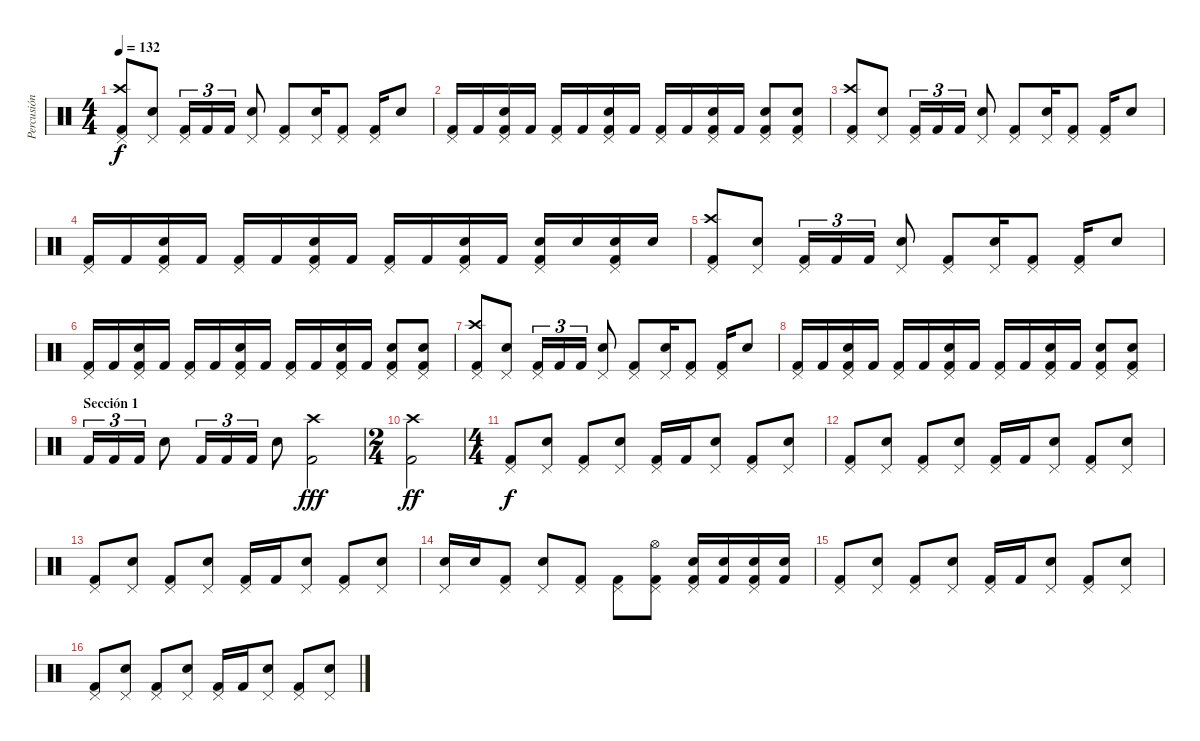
\track ("Percusión" "Percusión") {instrument percussion}
\staff {score}
\articulation defaults
\ts (4 4)
\tempo 132
\clef neutral
\ks c
("Pedal Hi-Hat (hit)" "Crash high (hit)" "Kick (hit) 2").8{dy f} ("Pedal Hi-Hat (hit)" "Electric Snare (hit)").8 ("Pedal Hi-Hat (hit)" "Kick (hit) 2").16{tu (3 2)} "Kick (hit) 2".16{tu (3 2)} "Kick (hit) 2".16{tu (3 2)} ("Pedal Hi-Hat (hit)" "Electric Snare (hit)").8 ("Pedal Hi-Hat (hit)" "Kick (hit) 2").8 ("Pedal Hi-Hat (hit)" "Electric Snare (hit)").16 ("Pedal Hi-Hat (hit)" "Kick (hit) 2").8 ("Pedal Hi-Hat (hit)" "Kick (hit) 2").16 "Electric Snare (hit)".8 |
("Pedal Hi-Hat (hit)" "Kick (hit) 2").16 "Kick (hit) 2".16 ("Pedal Hi-Hat (hit)" "Electric Snare (hit)" "Kick (hit) 2").16 "Kick (hit) 2".16 ("Pedal Hi-Hat (hit)" "Kick (hit) 2").16 "Kick (hit) 2".16 ("Pedal Hi-Hat (hit)" "Electric Snare (hit)" "Kick (hit) 2").16 "Kick (hit) 2".16 ("Pedal Hi-Hat (hit)" "Kick (hit) 2").16 "Kick (hit) 2".16 ("Pedal Hi-Hat (hit)" "Electric Snare (hit)" "Kick (hit) 2").16 "Kick (hit) 2".16 ("Pedal Hi-Hat (hit)" "Electric Snare (hit)" "Kick (hit) 2").8 ("Pedal Hi-Hat (hit)" "Electric Snare (hit)" "Kick (hit) 2").8 |
("Pedal Hi-Hat (hit)" "Crash high (hit)" "Kick (hit) 2").8 ("Pedal Hi-Hat (hit)" "Electric Snare (hit)").8 ("Pedal Hi-Hat (hit)" "Kick (hit) 2").16{tu (3 2)} "Kick (hit) 2".16{tu (3 2)} "Kick (hit) 2".16{tu (3 2)} ("Pedal Hi-Hat (hit)" "Electric Snare (hit)").8 ("Pedal Hi-Hat (hit)" "Kick (hit) 2").8 ("Pedal Hi-Hat (hit)" "Electric Snare (hit)").16 ("Pedal Hi-Hat (hit)" "Kick (hit) 2").8 ("Pedal Hi-Hat (hit)" "Kick (hit) 2").16 "Electric Snare (hit)".8 |
("Pedal Hi-Hat (hit)" "Kick (hit) 2").16 "Kick (hit) 2".16 ("Pedal Hi-Hat (hit)" "Electric Snare (hit)" "Kick (hit) 2").16 "Kick (hit) 2".16 ("Pedal Hi-Hat (hit)" "Kick (hit) 2").16 "Kick (hit) 2".16 ("Pedal Hi-Hat (hit)" "Electric Snare (hit)" "Kick (hit) 2").16 "Kick (hit) 2".16 ("Pedal Hi-Hat (hit)" "Kick (hit) 2").16 "Kick (hit) 2".16 ("Pedal Hi-Hat (hit)" "Electric Snare (hit)" "Kick (hit) 2").16 "Kick (hit) 2".16 ("Pedal Hi-Hat (hit)" "Electric Snare (hit)" "Kick (hit) 2").16 "Electric Snare (hit)".16 ("Pedal Hi-Hat (hit)" "Electric Snare (hit)" "Kick (hit) 2").16 "Electric Snare (hit)".16 |
("Pedal Hi-Hat (hit)" "Crash high (hit)" "Kick (hit) 2").8 ("Pedal Hi-Hat (hit)" "Electric Snare (hit)").8 ("Pedal Hi-Hat (hit)" "Kick (hit) 2").16{tu (3 2)} "Kick (hit) 2".16{tu (3 2)} "Kick (hit) 2".16{tu (3 2)} ("Pedal Hi-Hat (hit)" "Electric Snare (hit)").8 ("Pedal Hi-Hat (hit)" "Kick (hit) 2").8 ("Pedal Hi-Hat (hit)" "Electric Snare (hit)").16 ("Pedal Hi-Hat (hit)" "Kick (hit) 2").8 ("Pedal Hi-Hat (hit)" "Kick (hit) 2").16 "Electric Snare (hit)".8 |
("Pedal Hi-Hat (hit)" "Kick (hit) 2").16 "Kick (hit) 2".16 ("Pedal Hi-Hat (hit)" "Electric Snare (hit)" "Kick (hit) 2").16 "Kick (hit) 2".16 ("Pedal Hi-Hat (hit)" "Kick (hit) 2").16 "Kick (hit) 2".16 ("Pedal Hi-Hat (hit)" "Electric Snare (hit)" "Kick (hit) 2").16 "Kick (hit) 2".16 ("Pedal Hi-Hat (hit)" "Kick (hit) 2").16 "Kick (hit) 2".16 ("Pedal Hi-Hat (hit)" "Electric Snare (hit)" "Kick (hit) 2").16 "Kick (hit) 2".16 ("Pedal Hi-Hat (hit)" "Electric Snare (hit)" "Kick (hit) 2").8 ("Pedal Hi-Hat (hit)" "Electric Snare (hit)" "Kick (hit) 2").8 |
("Pedal Hi-Hat (hit)" "Crash high (hit)" "Kick (hit) 2").8 ("Pedal Hi-Hat (hit)" "Electric Snare (hit)").8 ("Pedal Hi-Hat (hit)" "Kick (hit) 2").16{tu (3 2)} "Kick (hit) 2".16{tu (3 2)} "Kick (hit) 2".16{tu (3 2)} ("Pedal Hi-Hat (hit)" "Electric Snare (hit)").8 ("Pedal Hi-Hat (hit)" "Kick (hit) 2").8 ("Pedal Hi-Hat (hit)" "Electric Snare (hit)").16 ("Pedal Hi-Hat (hit)" "Kick (hit) 2").8 ("Pedal Hi-Hat (hit)" "Kick (hit) 2").16 "Electric Snare (hit)".8 |
("Pedal Hi-Hat (hit)" "Kick (hit) 2").16 "Kick (hit) 2".16 ("Pedal Hi-Hat (hit)" "Electric Snare (hit)" "Kick (hit) 2").16 "Kick (hit) 2".16 ("Pedal Hi-Hat (hit)" "Kick (hit) 2").16 "Kick (hit) 2".16 ("Pedal Hi-Hat (hit)" "Electric Snare (hit)" "Kick (hit) 2").16 "Kick (hit) 2".16 ("Pedal Hi-Hat (hit)" "Kick (hit) 2").16 "Kick (hit) 2".16 ("Pedal Hi-Hat (hit)" "Electric Snare (hit)" "Kick (hit) 2").16 "Kick (hit) 2".16 ("Pedal Hi-Hat (hit)" "Electric Snare (hit)" "Kick (hit) 2").8 ("Pedal Hi-Hat (hit)" "Electric Snare (hit)" "Kick (hit) 2").8 |
\section ("" "Sección 1")
"Kick (hit) 2".16{tu (3 2)} "Kick (hit) 2".16{tu (3 2)} "Kick (hit) 2".16{tu (3 2)} "Electric Snare (hit)".8 "Kick (hit) 2".16{tu (3 2)} "Kick (hit) 2".16{tu (3 2)} "Kick (hit) 2".16{tu (3 2)} "Electric Snare (hit)".8 ("Crash high (hit)" "Kick (hit) 2").2{dy fff} |
\ts (2 4)
("Crash high (hit)" "Kick (hit) 2").2{dy ff} |
\ts (4 4)
("Pedal Hi-Hat (hit)" "Kick (hit) 2").8{dy f} ("Pedal Hi-Hat (hit)" "Electric Snare (hit)").8 ("Pedal Hi-Hat (hit)" "Kick (hit) 2").8 ("Pedal Hi-Hat (hit)" "Electric Snare (hit)").8 ("Pedal Hi-Hat (hit)" "Kick (hit) 2").16 "Kick (hit) 2".16 ("Pedal Hi-Hat (hit)" "Electric Snare (hit)").8 ("Pedal Hi-Hat (hit)" "Kick (hit) 2").8 ("Pedal Hi-Hat (hit)" "Electric Snare (hit)").8 |
("Pedal Hi-Hat (hit)" "Kick (hit) 2").8 ("Pedal Hi-Hat (hit)" "Electric Snare (hit)").8 ("Pedal Hi-Hat (hit)" "Kick (hit) 2").8 ("Pedal Hi-Hat (hit)" "Electric Snare (hit)").8 ("Pedal Hi-Hat (hit)" "Kick (hit) 2").16 "Kick (hit) 2".16 ("Pedal Hi-Hat (hit)" "Electric Snare (hit)").8 ("Pedal Hi-Hat (hit)" "Kick (hit) 2").8 ("Pedal Hi-Hat (hit)" "Electric Snare (hit)").8 |
("Pedal Hi-Hat (hit)" "Kick (hit) 2").8 ("Pedal Hi-Hat (hit)" "Electric Snare (hit)").8 ("Pedal Hi-Hat (hit)" "Kick (hit) 2").8 ("Pedal Hi-Hat (hit)" "Electric Snare (hit)").8 ("Pedal Hi-Hat (hit)" "Kick (hit) 2").16 "Kick (hit) 2".16 ("Pedal Hi-Hat (hit)" "Electric Snare (hit)").8 ("Pedal Hi-Hat (hit)" "Kick (hit) 2").8 ("Pedal Hi-Hat (hit)" "Electric Snare (hit)").8 |
("Pedal Hi-Hat (hit)" "Electric Snare (hit)").16 "Electric Snare (hit)".16 ("Pedal Hi-Hat (hit)" "Kick (hit) 2").8 ("Pedal Hi-Hat (hit)" "Electric Snare (hit)").8 ("Pedal Hi-Hat (hit)" "Kick (hit) 2").8 ("Pedal Hi-Hat (hit)" "Kick (hit) 2").8 ("Pedal Hi-Hat (hit)" "Hi-Hat (open)" "Kick (hit) 2").8 ("Pedal Hi-Hat (hit)" "Electric Snare (hit)" "Kick (hit) 2").16 ("Electric Snare (hit)" "Kick (hit) 2").16 ("Pedal Hi-Hat (hit)" "Electric Snare (hit)" "Kick (hit) 2").16 ("Electric Snare (hit)" "Kick (hit) 2").16 |
("Pedal Hi-Hat (hit)" "Kick (hit) 2").8 ("Pedal Hi-Hat (hit)" "Electric Snare (hit)").8 ("Pedal Hi-Hat (hit)" "Kick (hit) 2").8 ("Pedal Hi-Hat (hit)" "Electric Snare (hit)").8 ("Pedal Hi-Hat (hit)" "Kick (hit) 2").16 "Kick (hit) 2".16 ("Pedal Hi-Hat (hit)" "Electric Snare (hit)").8 ("Pedal Hi-Hat (hit)" "Kick (hit) 2").8 ("Pedal Hi-Hat (hit)" "Electric Snare (hit)").8 |
("Pedal Hi-Hat (hit)" "Kick (hit) 2").8 ("Pedal Hi-Hat (hit)" "Electric Snare (hit)").8 ("Pedal Hi-Hat (hit)" "Kick (hit) 2").8 ("Pedal Hi-Hat (hit)" "Electric Snare (hit)").8 ("Pedal Hi-Hat (hit)" "Kick (hit) 2").16 "Kick (hit) 2".16 ("Pedal Hi-Hat (hit)" "Electric Snare (hit)").8 ("Pedal Hi-Hat (hit)" "Kick (hit) 2").8 ("Pedal Hi-Hat (hit)" "Electric Snare (hit)").8
